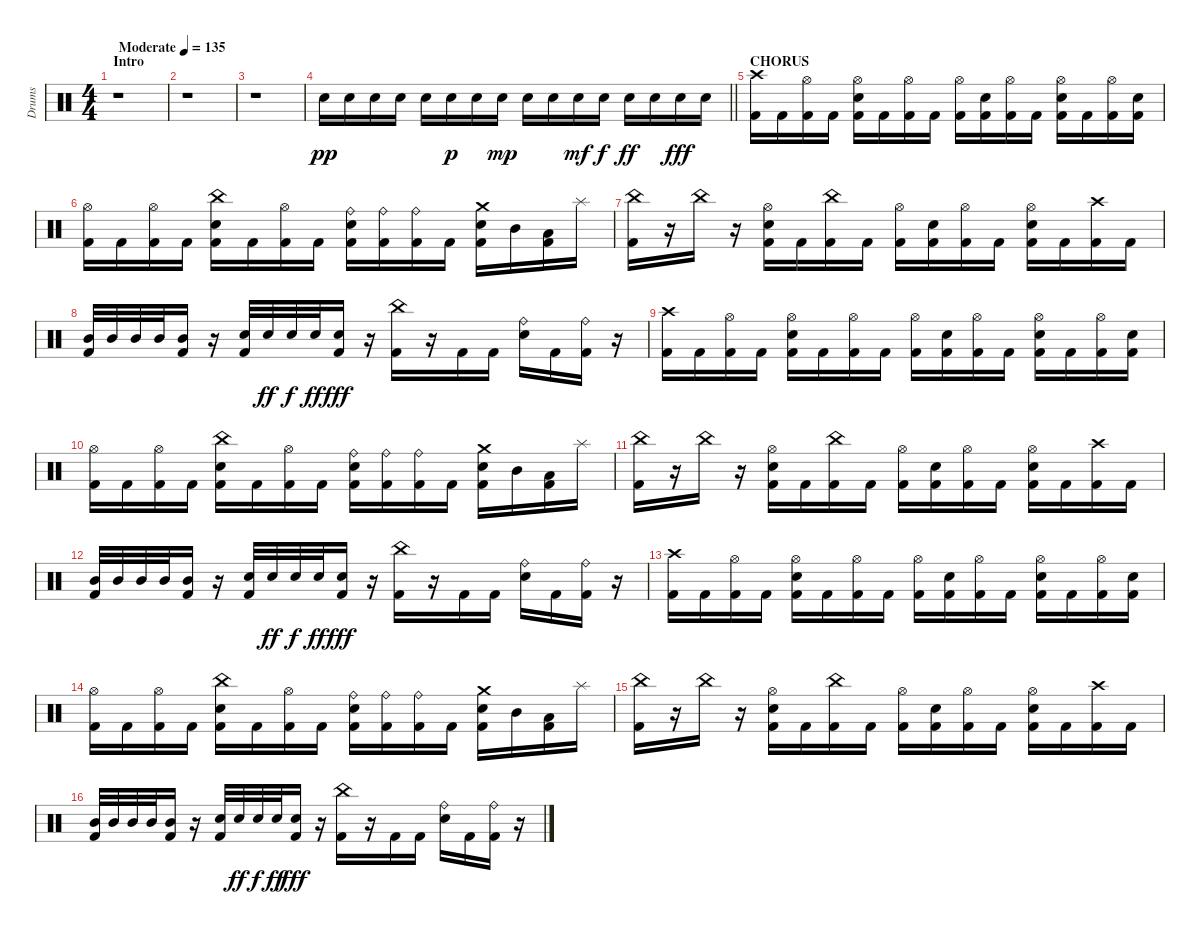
\track ("Drums" "Drums") {instrument percussion}
\staff {score}
\articulation defaults
\ts (4 4)
\section ("" "Intro")
\tempo (135 "Moderate")
\clef neutral
\ks c
r.1{dy pp} |
r.1 |
r.1 |
\barLineRight lightlight "Snare (hit) 2".16 "Snare (hit) 2".16 "Snare (hit) 2".16 "Snare (hit) 2".16 "Snare (hit) 2".16 "Snare (hit) 2".16{dy p} "Snare (hit) 2".16 "Snare (hit) 2".16{dy mp} "Snare (hit) 2".16 "Snare (hit) 2".16 "Snare (hit) 2".16{dy mf} "Snare (hit) 2".16{dy f} "Snare (hit) 2".16{dy ff} "Snare (hit) 2".16 "Snare (hit) 2".16{dy fff} "Snare (hit) 2".16
|
\section ("" "CHORUS")
("Kick (hit) 2" "Crash high (hit)").16 "Kick (hit) 2".16 ("Kick (hit) 2" "Hi-Hat (open)").16 "Kick (hit) 2".16 ("Kick (hit) 2" "Snare (hit) 2" "Hi-Hat (open)").16 "Kick (hit) 2".16 ("Kick (hit) 2" "Hi-Hat (open)").16 "Kick (hit) 2".16 ("Kick (hit) 2" "Hi-Hat (open)").16 ("Kick (hit) 2" "Snare (hit) 2").16 ("Kick (hit) 2" "Hi-Hat (open)").16 "Kick (hit) 2".16 ("Kick (hit) 2" "Snare (hit) 2" "Hi-Hat (open)").16 "Kick (hit) 2".16 ("Kick (hit) 2" "Hi-Hat (open)").16 ("Kick (hit) 2" "Snare (hit) 2").16 |
("Kick (hit) 2" "Hi-Hat (open)").16 "Kick (hit) 2".16 ("Kick (hit) 2" "Hi-Hat (open)").16 "Kick (hit) 2".16 ("Kick (hit) 2" "Snare (hit) 2" "China (hit)").16 "Kick (hit) 2".16 ("Kick (hit) 2" "Hi-Hat (open)").16 "Kick (hit) 2".16 ("Kick (hit) 2" "Snare (hit) 2" "Ride (bell)").16 ("Kick (hit) 2" "Ride (bell)").16 ("Kick (hit) 2" "Ride (bell)").16 "Kick (hit) 2".16 ("Kick (hit) 2" "Snare (hit) 2" "Crash medium (hit)").16 "Mid Tom (hit)".16 ("Kick (hit) 2" "Low Tom (hit)").16 "Splash (hit)".16 |
("Kick (hit) 2" "China (hit)").16 r.16 "China (hit)".16 r.16 ("Kick (hit) 2" "Snare (hit) 2" "Hi-Hat (open)").16 "Kick (hit) 2".16 ("Kick (hit) 2" "China (hit)").16 "Kick (hit) 2".16 ("Kick (hit) 2" "Hi-Hat (open)").16 ("Kick (hit) 2" "Snare (hit) 2").16 ("Kick (hit) 2" "Hi-Hat (open)").16 "Kick (hit) 2".16 ("Kick (hit) 2" "Snare (hit) 2" "Hi-Hat (open)").16 "Kick (hit) 2".16 ("Kick (hit) 2" "Crash high (hit)").16 "Kick (hit) 2".16 |
("Kick (hit) 2" "Mid Tom (hit)").32 "Mid Tom (hit)".32 "Mid Tom (hit)".32 "Mid Tom (hit)".32 ("Kick (hit) 2" "Mid Tom (hit)").16 r.16 ("Kick (hit) 2" "Snare (hit) 2").32 "Snare (hit) 2".32{dy ff} "Snare (hit) 2".32{dy f} "Snare (hit) 2".32{dy ff} ("Kick (hit) 2" "Snare (hit) 2").16{dy fff} r.16 ("Kick (hit) 2" "China (hit)").16 r.16 "Kick (hit) 2".16 "Kick (hit) 2".16 ("Snare (hit) 2" "Ride (bell)").16 "Kick (hit) 2".16 ("Kick (hit) 2" "Ride (bell)").16 r.16 |
("Kick (hit) 2" "Crash high (hit)").16 "Kick (hit) 2".16 ("Kick (hit) 2" "Hi-Hat (open)").16 "Kick (hit) 2".16 ("Kick (hit) 2" "Snare (hit) 2" "Hi-Hat (open)").16 "Kick (hit) 2".16 ("Kick (hit) 2" "Hi-Hat (open)").16 "Kick (hit) 2".16 ("Kick (hit) 2" "Hi-Hat (open)").16 ("Kick (hit) 2" "Snare (hit) 2").16 ("Kick (hit) 2" "Hi-Hat (open)").16 "Kick (hit) 2".16 ("Kick (hit) 2" "Snare (hit) 2" "Hi-Hat (open)").16 "Kick (hit) 2".16 ("Kick (hit) 2" "Hi-Hat (open)").16 ("Kick (hit) 2" "Snare (hit) 2").16 |
("Kick (hit) 2" "Hi-Hat (open)").16 "Kick (hit) 2".16 ("Kick (hit) 2" "Hi-Hat (open)").16 "Kick (hit) 2".16 ("Kick (hit) 2" "Snare (hit) 2" "China (hit)").16 "Kick (hit) 2".16 ("Kick (hit) 2" "Hi-Hat (open)").16 "Kick (hit) 2".16 ("Kick (hit) 2" "Snare (hit) 2" "Ride (bell)").16 ("Kick (hit) 2" "Ride (bell)").16 ("Kick (hit) 2" "Ride (bell)").16 "Kick (hit) 2".16 ("Kick (hit) 2" "Snare (hit) 2" "Crash medium (hit)").16 "Mid Tom (hit)".16 ("Kick (hit) 2" "Low Tom (hit)").16 "Splash (hit)".16 |
("Kick (hit) 2" "China (hit)").16 r.16 "China (hit)".16 r.16 ("Kick (hit) 2" "Snare (hit) 2" "Hi-Hat (open)").16 "Kick (hit) 2".16 ("Kick (hit) 2" "China (hit)").16 "Kick (hit) 2".16 ("Kick (hit) 2" "Hi-Hat (open)").16 ("Kick (hit) 2" "Snare (hit) 2").16 ("Kick (hit) 2" "Hi-Hat (open)").16 "Kick (hit) 2".16 ("Kick (hit) 2" "Snare (hit) 2" "Hi-Hat (open)").16 "Kick (hit) 2".16 ("Kick (hit) 2" "Crash high (hit)").16 "Kick (hit) 2".16 |
("Kick (hit) 2" "Mid Tom (hit)").32 "Mid Tom (hit)".32 "Mid Tom (hit)".32 "Mid Tom (hit)".32 ("Kick (hit) 2" "Mid Tom (hit)").16 r.16 ("Kick (hit) 2" "Snare (hit) 2").32 "Snare (hit) 2".32{dy ff} "Snare (hit) 2".32{dy f} "Snare (hit) 2".32{dy ff} ("Kick (hit) 2" "Snare (hit) 2").16{dy fff} r.16 ("Kick (hit) 2" "China (hit)").16 r.16 "Kick (hit) 2".16 "Kick (hit) 2".16 ("Snare (hit) 2" "Ride (bell)").16 "Kick (hit) 2".16 ("Kick (hit) 2" "Ride (bell)").16 r.16 |
("Kick (hit) 2" "Crash high (hit)").16 "Kick (hit) 2".16 ("Kick (hit) 2" "Hi-Hat (open)").16 "Kick (hit) 2".16 ("Kick (hit) 2" "Snare (hit) 2" "Hi-Hat (open)").16 "Kick (hit) 2".16 ("Kick (hit) 2" "Hi-Hat (open)").16 "Kick (hit) 2".16 ("Kick (hit) 2" "Hi-Hat (open)").16 ("Kick (hit) 2" "Snare (hit) 2").16 ("Kick (hit) 2" "Hi-Hat (open)").16 "Kick (hit) 2".16 ("Kick (hit) 2" "Snare (hit) 2" "Hi-Hat (open)").16 "Kick (hit) 2".16 ("Kick (hit) 2" "Hi-Hat (open)").16 ("Kick (hit) 2" "Snare (hit) 2").16 |
("Kick (hit) 2" "Hi-Hat (open)").16 "Kick (hit) 2".16 ("Kick (hit) 2" "Hi-Hat (open)").16 "Kick (hit) 2".16 ("Kick (hit) 2" "Snare (hit) 2" "China (hit)").16 "Kick (hit) 2".16 ("Kick (hit) 2" "Hi-Hat (open)").16 "Kick (hit) 2".16 ("Kick (hit) 2" "Snare (hit) 2" "Ride (bell)").16 ("Kick (hit) 2" "Ride (bell)").16 ("Kick (hit) 2" "Ride (bell)").16 "Kick (hit) 2".16 ("Kick (hit) 2" "Snare (hit) 2" "Crash medium (hit)").16 "Mid Tom (hit)".16 ("Kick (hit) 2" "Low Tom (hit)").16 "Splash (hit)".16 |
("Kick (hit) 2" "China (hit)").16 r.16 "China (hit)".16 r.16 ("Kick (hit) 2" "Snare (hit) 2" "Hi-Hat (open)").16 "Kick (hit) 2".16 ("Kick (hit) 2" "China (hit)").16 "Kick (hit) 2".16 ("Kick (hit) 2" "Hi-Hat (open)").16 ("Kick (hit) 2" "Snare (hit) 2").16 ("Kick (hit) 2" "Hi-Hat (open)").16 "Kick (hit) 2".16 ("Kick (hit) 2" "Snare (hit) 2" "Hi-Hat (open)").16 "Kick (hit) 2".16 ("Kick (hit) 2" "Crash high (hit)").16 "Kick (hit) 2".16 |
("Kick (hit) 2" "Mid Tom (hit)").32 "Mid Tom (hit)".32 "Mid Tom (hit)".32 "Mid Tom (hit)".32 ("Kick (hit) 2" "Mid Tom (hit)").16 r.16 ("Kick (hit) 2" "Snare (hit) 2").32 "Snare (hit) 2".32{dy ff} "Snare (hit) 2".32{dy f} "Snare (hit) 2".32{dy ff} ("Kick (hit) 2" "Snare (hit) 2").16{dy fff} r.16 ("Kick (hit) 2" "China (hit)").16 r.16 "Kick (hit) 2".16 "Kick (hit) 2".16 ("Snare (hit) 2" "Ride (bell)").16 "Kick (hit) 2".16 ("Kick (hit) 2" "Ride (bell)").16 r.16
